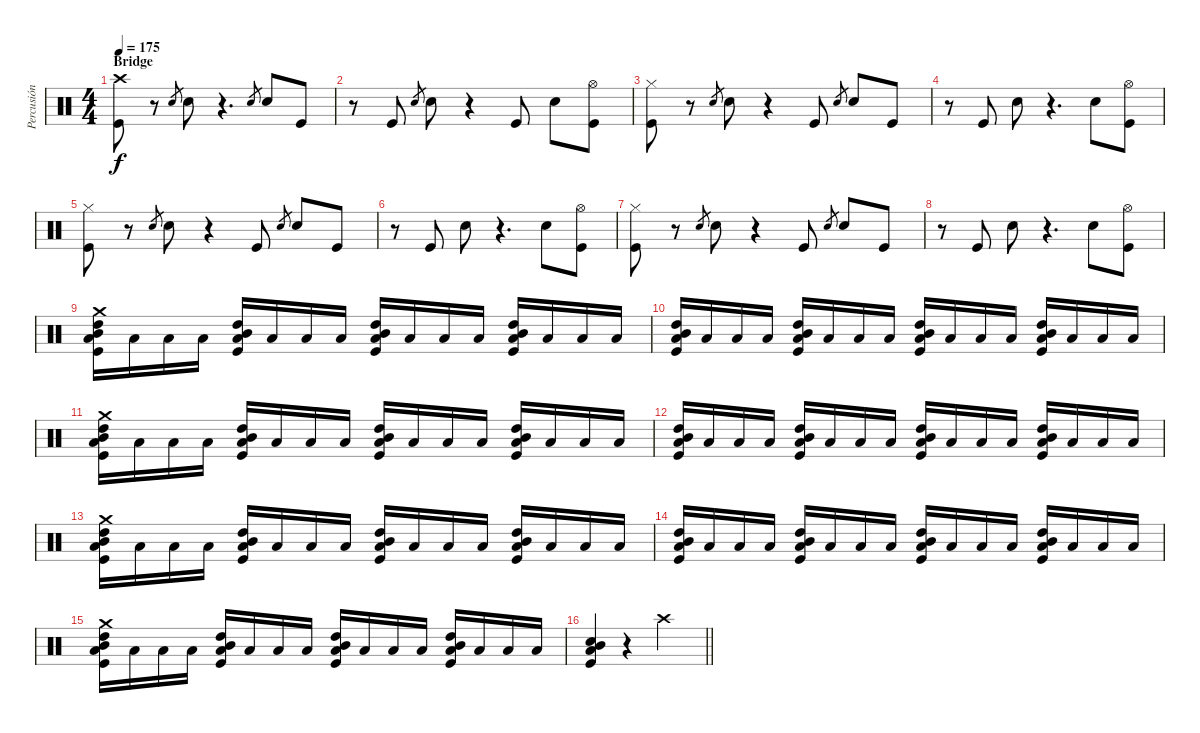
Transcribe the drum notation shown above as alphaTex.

\track ("Percusión" "Percusión") {instrument percussion}
\staff {score}
\articulation defaults
\ts (4 4)
\section ("" "Bridge")
\tempo 175
\clef neutral
\ks c
("Crash high (hit)" "Kick (hit)").8{dy f} r.8 "Snare (hit) 2".8{gr} "Snare (hit) 2".8 r.4{d} "Snare (hit) 2".8{gr} "Snare (hit) 2".8 "Kick (hit)".8 |
r.8 "Kick (hit)".8 "Snare (hit) 2".8{gr} "Snare (hit) 2".8 r.4 "Kick (hit)".8 "Snare (hit) 2".8 ("Hi-Hat (open)" "Kick (hit)").8 |
("Hi-Hat (closed)" "Kick (hit)").8 r.8 "Snare (hit) 2".8{gr} "Snare (hit) 2".8 r.4 "Kick (hit)".8 "Snare (hit) 2".8{gr} "Snare (hit) 2".8 "Kick (hit)".8 |
r.8 "Kick (hit)".8 "Snare (hit) 2".8 r.4{d} "Snare (hit) 2".8 ("Kick (hit)" "Hi-Hat (open)").8 |
("Hi-Hat (closed)" "Kick (hit)").8 r.8 "Snare (hit) 2".8{gr} "Snare (hit) 2".8 r.4 "Kick (hit)".8 "Snare (hit) 2".8{gr} "Snare (hit) 2".8 "Kick (hit)".8 |
r.8 "Kick (hit)".8 "Snare (hit) 2".8 r.4{d} "Snare (hit) 2".8 ("Kick (hit)" "Hi-Hat (open)").8 |
("Hi-Hat (closed)" "Kick (hit)").8 r.8 "Snare (hit) 2".8{gr} "Snare (hit) 2".8 r.4 "Kick (hit)".8 "Snare (hit) 2".8{gr} "Snare (hit) 2".8 "Kick (hit)".8 |
r.8 "Kick (hit)".8 "Snare (hit) 2".8 r.4{d} "Snare (hit) 2".8 ("Kick (hit)" "Hi-Hat (open)").8 |
("High Tom (hit)" "Low Tom (hit)" "Mid Tom (hit)" "Kick (hit)" "Crash medium (hit)").16 "Low Tom (hit)".16 "Low Tom (hit)".16 "Low Tom (hit)".16 ("High Tom (hit)" "Low Tom (hit)" "Mid Tom (hit)" "Kick (hit)").16 "Low Tom (hit)".16 "Low Tom (hit)".16 "Low Tom (hit)".16 ("High Tom (hit)" "Low Tom (hit)" "Mid Tom (hit)" "Kick (hit)").16 "Low Tom (hit)".16 "Low Tom (hit)".16 "Low Tom (hit)".16 ("High Tom (hit)" "Low Tom (hit)" "Mid Tom (hit)" "Kick (hit)").16 "Low Tom (hit)".16 "Low Tom (hit)".16 "Low Tom (hit)".16 |
("High Tom (hit)" "Low Tom (hit)" "Mid Tom (hit)" "Kick (hit)").16 "Low Tom (hit)".16 "Low Tom (hit)".16 "Low Tom (hit)".16 ("High Tom (hit)" "Low Tom (hit)" "Mid Tom (hit)" "Kick (hit)").16 "Low Tom (hit)".16 "Low Tom (hit)".16 "Low Tom (hit)".16 ("High Tom (hit)" "Low Tom (hit)" "Mid Tom (hit)" "Kick (hit)").16 "Low Tom (hit)".16 "Low Tom (hit)".16 "Low Tom (hit)".16 ("High Tom (hit)" "Low Tom (hit)" "Mid Tom (hit)" "Kick (hit)").16 "Low Tom (hit)".16 "Low Tom (hit)".16 "Low Tom (hit)".16 |
("High Tom (hit)" "Low Tom (hit)" "Mid Tom (hit)" "Kick (hit)" "Crash medium (hit)").16 "Low Tom (hit)".16 "Low Tom (hit)".16 "Low Tom (hit)".16 ("High Tom (hit)" "Low Tom (hit)" "Mid Tom (hit)" "Kick (hit)").16 "Low Tom (hit)".16 "Low Tom (hit)".16 "Low Tom (hit)".16 ("High Tom (hit)" "Low Tom (hit)" "Mid Tom (hit)" "Kick (hit)").16 "Low Tom (hit)".16 "Low Tom (hit)".16 "Low Tom (hit)".16 ("High Tom (hit)" "Low Tom (hit)" "Mid Tom (hit)" "Kick (hit)").16 "Low Tom (hit)".16 "Low Tom (hit)".16 "Low Tom (hit)".16 |
("High Tom (hit)" "Low Tom (hit)" "Mid Tom (hit)" "Kick (hit)").16 "Low Tom (hit)".16 "Low Tom (hit)".16 "Low Tom (hit)".16 ("High Tom (hit)" "Low Tom (hit)" "Mid Tom (hit)" "Kick (hit)").16 "Low Tom (hit)".16 "Low Tom (hit)".16 "Low Tom (hit)".16 ("High Tom (hit)" "Low Tom (hit)" "Mid Tom (hit)" "Kick (hit)").16 "Low Tom (hit)".16 "Low Tom (hit)".16 "Low Tom (hit)".16 ("High Tom (hit)" "Low Tom (hit)" "Mid Tom (hit)" "Kick (hit)").16 "Low Tom (hit)".16 "Low Tom (hit)".16 "Low Tom (hit)".16 |
("High Tom (hit)" "Low Tom (hit)" "Mid Tom (hit)" "Kick (hit)" "Crash medium (hit)").16 "Low Tom (hit)".16 "Low Tom (hit)".16 "Low Tom (hit)".16 ("High Tom (hit)" "Low Tom (hit)" "Mid Tom (hit)" "Kick (hit)").16 "Low Tom (hit)".16 "Low Tom (hit)".16 "Low Tom (hit)".16 ("High Tom (hit)" "Low Tom (hit)" "Mid Tom (hit)" "Kick (hit)").16 "Low Tom (hit)".16 "Low Tom (hit)".16 "Low Tom (hit)".16 ("High Tom (hit)" "Low Tom (hit)" "Mid Tom (hit)" "Kick (hit)").16 "Low Tom (hit)".16 "Low Tom (hit)".16 "Low Tom (hit)".16 |
("High Tom (hit)" "Low Tom (hit)" "Mid Tom (hit)" "Kick (hit)").16 "Low Tom (hit)".16 "Low Tom (hit)".16 "Low Tom (hit)".16 ("High Tom (hit)" "Low Tom (hit)" "Mid Tom (hit)" "Kick (hit)").16 "Low Tom (hit)".16 "Low Tom (hit)".16 "Low Tom (hit)".16 ("High Tom (hit)" "Low Tom (hit)" "Mid Tom (hit)" "Kick (hit)").16 "Low Tom (hit)".16 "Low Tom (hit)".16 "Low Tom (hit)".16 ("High Tom (hit)" "Low Tom (hit)" "Mid Tom (hit)" "Kick (hit)").16 "Low Tom (hit)".16 "Low Tom (hit)".16 "Low Tom (hit)".16 |
("High Tom (hit)" "Low Tom (hit)" "Mid Tom (hit)" "Kick (hit)" "Crash medium (hit)").16 "Low Tom (hit)".16 "Low Tom (hit)".16 "Low Tom (hit)".16 ("High Tom (hit)" "Low Tom (hit)" "Mid Tom (hit)" "Kick (hit)").16 "Low Tom (hit)".16 "Low Tom (hit)".16 "Low Tom (hit)".16 ("High Tom (hit)" "Low Tom (hit)" "Mid Tom (hit)" "Kick (hit)").16 "Low Tom (hit)".16 "Low Tom (hit)".16 "Low Tom (hit)".16 ("High Tom (hit)" "Low Tom (hit)" "Mid Tom (hit)" "Kick (hit)").16 "Low Tom (hit)".16 "Low Tom (hit)".16 "Low Tom (hit)".16 |
\barLineRight lightlight
("Kick (hit)" "Mid Tom (hit)" "Low Tom (hit)" "Snare (hit) 2").4 r.4{volume 1} "Crash high (hit)".2{volume 16}
